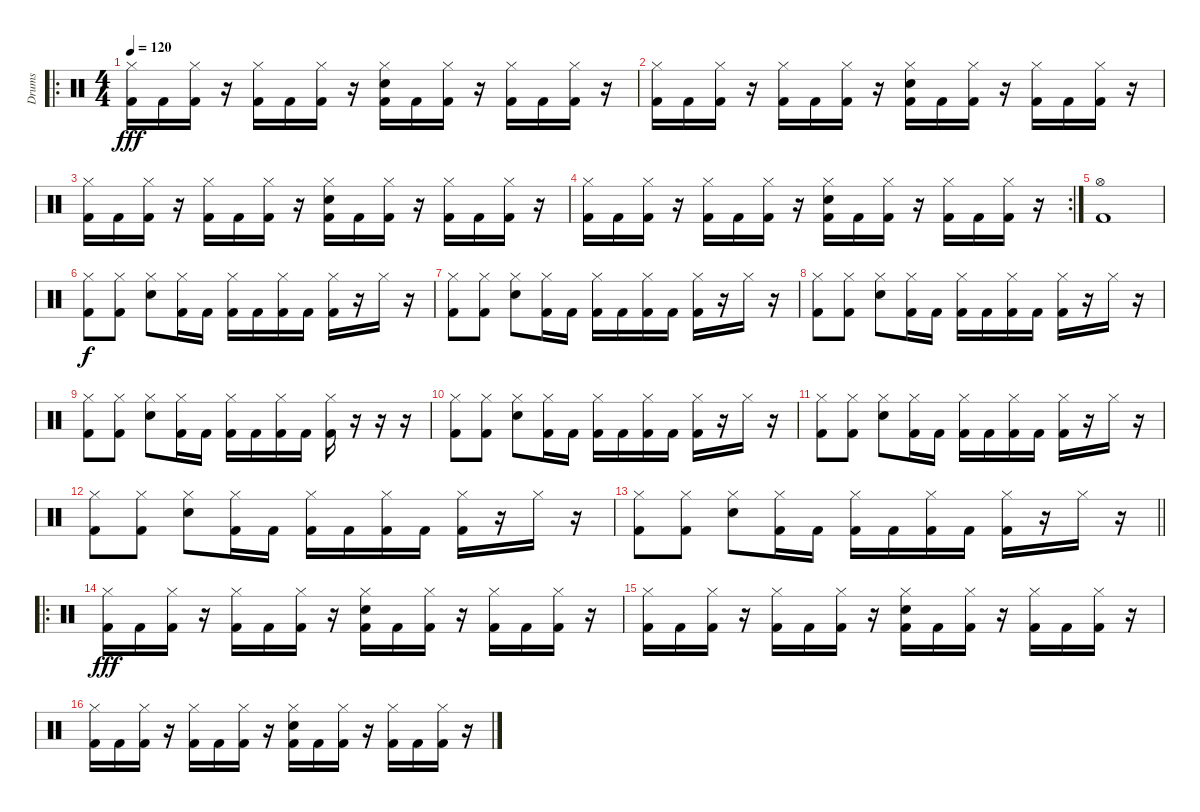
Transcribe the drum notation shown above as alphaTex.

\track ("Drums" "Drums") {instrument percussion}
\staff {score}
\articulation defaults
\ro
\ts (4 4)
\tempo 120
\clef neutral
\ks c
("Hi-Hat (closed)" "Kick (hit) 2").16{dy fff} "Kick (hit) 2".16 ("Hi-Hat (closed)" "Kick (hit) 2").16 r.16 ("Hi-Hat (closed)" "Kick (hit) 2").16 "Kick (hit) 2".16 ("Hi-Hat (closed)" "Kick (hit) 2").16 r.16 ("Hi-Hat (closed)" "Snare (hit) 2" "Kick (hit) 2").16 "Kick (hit) 2".16 ("Hi-Hat (closed)" "Kick (hit) 2").16 r.16 ("Hi-Hat (closed)" "Kick (hit) 2").16 "Kick (hit) 2".16 ("Hi-Hat (closed)" "Kick (hit) 2").16 r.16 |
("Hi-Hat (closed)" "Kick (hit) 2").16 "Kick (hit) 2".16 ("Hi-Hat (closed)" "Kick (hit) 2").16 r.16 ("Hi-Hat (closed)" "Kick (hit) 2").16 "Kick (hit) 2".16 ("Hi-Hat (closed)" "Kick (hit) 2").16 r.16 ("Hi-Hat (closed)" "Snare (hit) 2" "Kick (hit) 2").16 "Kick (hit) 2".16 ("Hi-Hat (closed)" "Kick (hit) 2").16 r.16 ("Hi-Hat (closed)" "Kick (hit) 2").16 "Kick (hit) 2".16 ("Hi-Hat (closed)" "Kick (hit) 2").16 r.16 |
("Hi-Hat (closed)" "Kick (hit) 2").16 "Kick (hit) 2".16 ("Hi-Hat (closed)" "Kick (hit) 2").16 r.16 ("Hi-Hat (closed)" "Kick (hit) 2").16 "Kick (hit) 2".16 ("Hi-Hat (closed)" "Kick (hit) 2").16 r.16 ("Hi-Hat (closed)" "Snare (hit) 2" "Kick (hit) 2").16 "Kick (hit) 2".16 ("Hi-Hat (closed)" "Kick (hit) 2").16 r.16 ("Hi-Hat (closed)" "Kick (hit) 2").16 "Kick (hit) 2".16 ("Hi-Hat (closed)" "Kick (hit) 2").16 r.16 |
\rc 2
("Hi-Hat (closed)" "Kick (hit) 2").16 "Kick (hit) 2".16 ("Hi-Hat (closed)" "Kick (hit) 2").16 r.16 ("Hi-Hat (closed)" "Kick (hit) 2").16 "Kick (hit) 2".16 ("Hi-Hat (closed)" "Kick (hit) 2").16 r.16 ("Hi-Hat (closed)" "Snare (hit) 2" "Kick (hit) 2").16 "Kick (hit) 2".16 ("Hi-Hat (closed)" "Kick (hit) 2").16 r.16 ("Hi-Hat (closed)" "Kick (hit) 2").16 "Kick (hit) 2".16 ("Hi-Hat (closed)" "Kick (hit) 2").16 r.16 |
("Hi-Hat (open)" "Kick (hit) 2").1 |
("Hi-Hat (closed)" "Kick (hit) 2").8{dy f} ("Hi-Hat (closed)" "Kick (hit) 2").8 ("Hi-Hat (closed)" "Snare (hit) 2").8 ("Hi-Hat (closed)" "Kick (hit) 2").16 "Kick (hit) 2".16 ("Hi-Hat (closed)" "Kick (hit) 2").16 "Kick (hit) 2".16 ("Hi-Hat (closed)" "Kick (hit) 2").16 "Kick (hit) 2".16 ("Hi-Hat (closed)" "Kick (hit) 2").16 r.16 "Hi-Hat (closed)".16 r.16 |
("Hi-Hat (closed)" "Kick (hit) 2").8 ("Hi-Hat (closed)" "Kick (hit) 2").8 ("Hi-Hat (closed)" "Snare (hit) 2").8 ("Hi-Hat (closed)" "Kick (hit) 2").16 "Kick (hit) 2".16 ("Hi-Hat (closed)" "Kick (hit) 2").16 "Kick (hit) 2".16 ("Hi-Hat (closed)" "Kick (hit) 2").16 "Kick (hit) 2".16 ("Hi-Hat (closed)" "Kick (hit) 2").16 r.16 "Hi-Hat (closed)".16 r.16 |
("Hi-Hat (closed)" "Kick (hit) 2").8 ("Hi-Hat (closed)" "Kick (hit) 2").8 ("Hi-Hat (closed)" "Snare (hit) 2").8 ("Hi-Hat (closed)" "Kick (hit) 2").16 "Kick (hit) 2".16 ("Hi-Hat (closed)" "Kick (hit) 2").16 "Kick (hit) 2".16 ("Hi-Hat (closed)" "Kick (hit) 2").16 "Kick (hit) 2".16 ("Hi-Hat (closed)" "Kick (hit) 2").16 r.16 "Hi-Hat (closed)".16 r.16 |
("Hi-Hat (closed)" "Kick (hit) 2").8 ("Hi-Hat (closed)" "Kick (hit) 2").8 ("Hi-Hat (closed)" "Snare (hit) 2").8 ("Hi-Hat (closed)" "Kick (hit) 2").16 "Kick (hit) 2".16 ("Hi-Hat (closed)" "Kick (hit) 2").16 "Kick (hit) 2".16 ("Hi-Hat (closed)" "Kick (hit) 2").16 "Kick (hit) 2".16 ("Hi-Hat (closed)" "Kick (hit) 2").16 r.16 r.16 r.16 |
("Hi-Hat (closed)" "Kick (hit) 2").8 ("Hi-Hat (closed)" "Kick (hit) 2").8 ("Hi-Hat (closed)" "Snare (hit) 2").8 ("Hi-Hat (closed)" "Kick (hit) 2").16 "Kick (hit) 2".16 ("Hi-Hat (closed)" "Kick (hit) 2").16 "Kick (hit) 2".16 ("Hi-Hat (closed)" "Kick (hit) 2").16 "Kick (hit) 2".16 ("Hi-Hat (closed)" "Kick (hit) 2").16 r.16 "Hi-Hat (closed)".16 r.16 |
("Hi-Hat (closed)" "Kick (hit) 2").8 ("Hi-Hat (closed)" "Kick (hit) 2").8 ("Hi-Hat (closed)" "Snare (hit) 2").8 ("Hi-Hat (closed)" "Kick (hit) 2").16 "Kick (hit) 2".16 ("Hi-Hat (closed)" "Kick (hit) 2").16 "Kick (hit) 2".16 ("Hi-Hat (closed)" "Kick (hit) 2").16 "Kick (hit) 2".16 ("Hi-Hat (closed)" "Kick (hit) 2").16 r.16 "Hi-Hat (closed)".16 r.16 |
("Hi-Hat (closed)" "Kick (hit) 2").8 ("Hi-Hat (closed)" "Kick (hit) 2").8 ("Hi-Hat (closed)" "Snare (hit) 2").8 ("Hi-Hat (closed)" "Kick (hit) 2").16 "Kick (hit) 2".16 ("Hi-Hat (closed)" "Kick (hit) 2").16 "Kick (hit) 2".16 ("Hi-Hat (closed)" "Kick (hit) 2").16 "Kick (hit) 2".16 ("Hi-Hat (closed)" "Kick (hit) 2").16 r.16 "Hi-Hat (closed)".16 r.16 |
\barLineRight lightlight
("Hi-Hat (closed)" "Kick (hit) 2").8 ("Hi-Hat (closed)" "Kick (hit) 2").8 ("Hi-Hat (closed)" "Snare (hit) 2").8 ("Hi-Hat (closed)" "Kick (hit) 2").16 "Kick (hit) 2".16 ("Hi-Hat (closed)" "Kick (hit) 2").16 "Kick (hit) 2".16 ("Hi-Hat (closed)" "Kick (hit) 2").16 "Kick (hit) 2".16 ("Hi-Hat (closed)" "Kick (hit) 2").16 r.16 "Hi-Hat (closed)".16 r.16 |
\ro
("Hi-Hat (closed)" "Kick (hit) 2").16{dy fff} "Kick (hit) 2".16 ("Hi-Hat (closed)" "Kick (hit) 2").16 r.16 ("Hi-Hat (closed)" "Kick (hit) 2").16 "Kick (hit) 2".16 ("Hi-Hat (closed)" "Kick (hit) 2").16 r.16 ("Hi-Hat (closed)" "Snare (hit) 2" "Kick (hit) 2").16 "Kick (hit) 2".16 ("Hi-Hat (closed)" "Kick (hit) 2").16 r.16 ("Hi-Hat (closed)" "Kick (hit) 2").16 "Kick (hit) 2".16 ("Hi-Hat (closed)" "Kick (hit) 2").16 r.16 |
("Hi-Hat (closed)" "Kick (hit) 2").16 "Kick (hit) 2".16 ("Hi-Hat (closed)" "Kick (hit) 2").16 r.16 ("Hi-Hat (closed)" "Kick (hit) 2").16 "Kick (hit) 2".16 ("Hi-Hat (closed)" "Kick (hit) 2").16 r.16 ("Hi-Hat (closed)" "Snare (hit) 2" "Kick (hit) 2").16 "Kick (hit) 2".16 ("Hi-Hat (closed)" "Kick (hit) 2").16 r.16 ("Hi-Hat (closed)" "Kick (hit) 2").16 "Kick (hit) 2".16 ("Hi-Hat (closed)" "Kick (hit) 2").16 r.16 |
("Hi-Hat (closed)" "Kick (hit) 2").16 "Kick (hit) 2".16 ("Hi-Hat (closed)" "Kick (hit) 2").16 r.16 ("Hi-Hat (closed)" "Kick (hit) 2").16 "Kick (hit) 2".16 ("Hi-Hat (closed)" "Kick (hit) 2").16 r.16 ("Hi-Hat (closed)" "Snare (hit) 2" "Kick (hit) 2").16 "Kick (hit) 2".16 ("Hi-Hat (closed)" "Kick (hit) 2").16 r.16 ("Hi-Hat (closed)" "Kick (hit) 2").16 "Kick (hit) 2".16 ("Hi-Hat (closed)" "Kick (hit) 2").16 r.16
